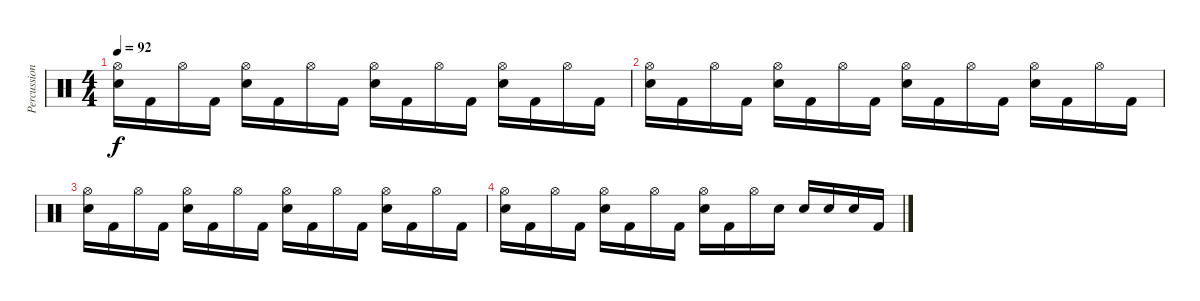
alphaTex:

\track ("Percussion" "Percussion") {instrument percussion}
\staff {score}
\articulation defaults
\ts (4 4)
\tempo 92
\clef neutral
\ks c
("Hi-Hat (open)" "Electric Snare (hit)").16{dy f} "Kick (hit) 2".16 "Hi-Hat (open)".16 "Kick (hit) 2".16 ("Hi-Hat (open)" "Electric Snare (hit)").16 "Kick (hit) 2".16 "Hi-Hat (open)".16 "Kick (hit) 2".16 ("Hi-Hat (open)" "Electric Snare (hit)").16 "Kick (hit) 2".16 "Hi-Hat (open)".16 "Kick (hit) 2".16 ("Hi-Hat (open)" "Electric Snare (hit)").16 "Kick (hit) 2".16 "Hi-Hat (open)".16 "Kick (hit) 2".16 |
("Hi-Hat (open)" "Electric Snare (hit)").16 "Kick (hit) 2".16 "Hi-Hat (open)".16 "Kick (hit) 2".16 ("Hi-Hat (open)" "Electric Snare (hit)").16 "Kick (hit) 2".16 "Hi-Hat (open)".16 "Kick (hit) 2".16 ("Hi-Hat (open)" "Electric Snare (hit)").16 "Kick (hit) 2".16 "Hi-Hat (open)".16 "Kick (hit) 2".16 ("Hi-Hat (open)" "Electric Snare (hit)").16 "Kick (hit) 2".16 "Hi-Hat (open)".16 "Kick (hit) 2".16 |
("Hi-Hat (open)" "Electric Snare (hit)").16 "Kick (hit) 2".16 "Hi-Hat (open)".16 "Kick (hit) 2".16 ("Hi-Hat (open)" "Electric Snare (hit)").16 "Kick (hit) 2".16 "Hi-Hat (open)".16 "Kick (hit) 2".16 ("Hi-Hat (open)" "Electric Snare (hit)").16 "Kick (hit) 2".16 "Hi-Hat (open)".16 "Kick (hit) 2".16 ("Hi-Hat (open)" "Electric Snare (hit)").16 "Kick (hit) 2".16 "Hi-Hat (open)".16 "Kick (hit) 2".16 |
("Hi-Hat (open)" "Electric Snare (hit)").16 "Kick (hit) 2".16 "Hi-Hat (open)".16 "Kick (hit) 2".16 ("Hi-Hat (open)" "Electric Snare (hit)").16 "Kick (hit) 2".16 "Hi-Hat (open)".16 "Kick (hit) 2".16 ("Hi-Hat (open)" "Electric Snare (hit)").16 "Kick (hit) 2".16 "Hi-Hat (open)".16 "Electric Snare (hit)".16 "Electric Snare (hit)".16 "Electric Snare (hit)".16 "Electric Snare (hit)".16 "Kick (hit) 2".16
